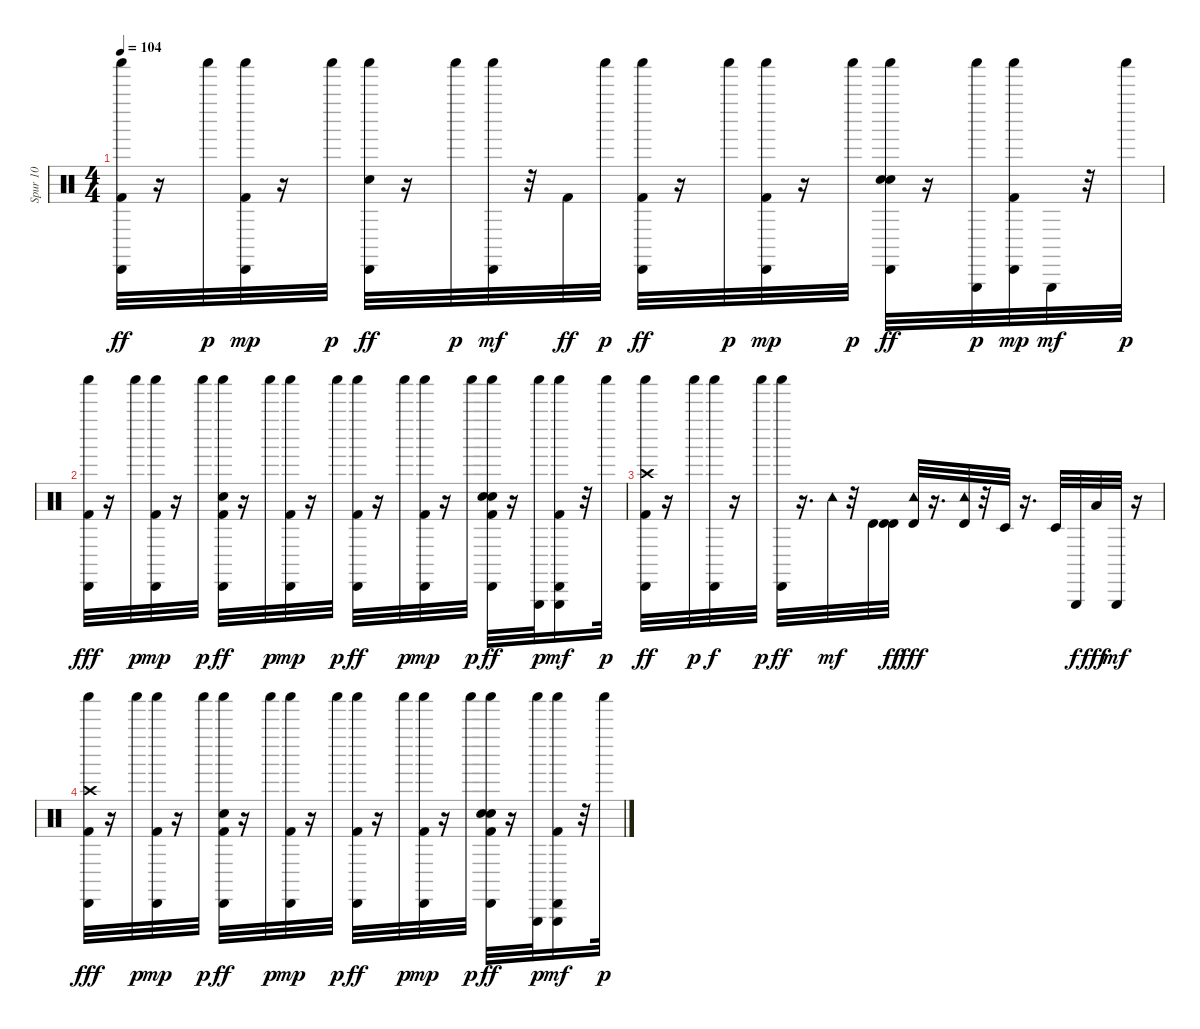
\track ("Spur 10" "Spur 10") {instrument percussion}
\staff {score}
\articulation defaults
\ts (4 4)
\tempo 104
\clef neutral
\ks c
("Kick (hit) 2" "Cabasa (hit)" "Shaker (hit)").32{dy ff} r.16 "Shaker (hit)".32{dy p} ("Kick (hit) 2" "Cabasa (hit)" "Shaker (hit)").32{dy mp} r.16 "Shaker (hit)".32{dy p} ("Snare (hit) 2" "Cabasa (hit)" "Shaker (hit)").32{dy ff} r.16 "Shaker (hit)".32{dy p} ("Cabasa (hit)" "Shaker (hit)").32{dy mf} r.32 "Kick (hit) 2".32{dy ff} "Shaker (hit)".32{dy p} ("Kick (hit) 2" "Cabasa (hit)" "Shaker (hit)").32{dy ff} r.16 "Shaker (hit)".32{dy p} ("Kick (hit) 2" "Cabasa (hit)" "Shaker (hit)").32{dy mp} r.16 "Shaker (hit)".32{dy p} ("Snare (hit) 2" "Hand Clap (hit)" "Cabasa (hit)" "Shaker (hit)").32{dy ff} r.16 ("Shaker (hit)" "Triangle (hit)").32{dy p} ("Kick (hit) 2" "Cabasa (hit)" "Shaker (hit)").32{dy mp} "Triangle (hit)".32{dy mf} r.32 "Shaker (hit)".32{dy p} |
("Kick (hit) 2" "Cabasa (hit)" "Shaker (hit)").32{dy fff} r.16 "Shaker (hit)".32{dy p} ("Kick (hit) 2" "Cabasa (hit)" "Shaker (hit)").32{dy mp} r.16 "Shaker (hit)".32{dy p} ("Kick (hit) 2" "Snare (hit) 2" "Cabasa (hit)" "Shaker (hit)").32{dy ff} r.16 "Shaker (hit)".32{dy p} ("Kick (hit) 2" "Cabasa (hit)" "Shaker (hit)").32{dy mp} r.16 "Shaker (hit)".32{dy p} ("Kick (hit) 2" "Cabasa (hit)" "Shaker (hit)").32{dy ff} r.16 "Shaker (hit)".32{dy p} ("Kick (hit) 2" "Cabasa (hit)" "Shaker (hit)").32{dy mp} r.16 "Shaker (hit)".32{dy p} ("Kick (hit) 2" "Snare (hit) 2" "Hand Clap (hit)" "Cabasa (hit)" "Shaker (hit)").32{dy ff} r.16 ("Triangle (hit)" "Shaker (hit)").32{dy p} ("Kick (hit) 2" "Cabasa (hit)" "Shaker (hit)" "Triangle (hit)").16{dy mf} r.32 "Shaker (hit)".32{dy p} |
("Crash high (hit)" "Kick (hit) 2" "Cabasa (hit)" "Shaker (hit)").32{dy ff} r.16 "Shaker (hit)".32{dy p} ("Cabasa (hit)" "Shaker (hit)").32{dy f} r.16 "Shaker (hit)".32{dy p} ("Cabasa (hit)" "Shaker (hit)").32{dy ff} r.16{d} "Tambourine (hit)".32{dy mf} r.32 "Timbale high (hit)".32 ("Timbale high (hit)" "Timbale high (hit)").32{dy ff} ("Timbale high (hit)" "Tambourine (hit)").32{dy fff} r.16{d} ("Timbale high (hit)" "Tambourine (hit)").32 r.32 "Timbale low (hit)".32 r.16{d} "Timbale low (hit)".32 "Triangle (hit)".32{dy f} "Low Tom (hit)".32{dy fff} "Triangle (hit)".32{dy mf} r.16 |
("Crash high (hit)" "Kick (hit) 2" "Cabasa (hit)" "Shaker (hit)").32{dy fff} r.16 "Shaker (hit)".32{dy p} ("Kick (hit) 2" "Cabasa (hit)" "Shaker (hit)").32{dy mp} r.16 "Shaker (hit)".32{dy p} ("Kick (hit) 2" "Snare (hit) 2" "Cabasa (hit)" "Shaker (hit)").32{dy ff} r.16 "Shaker (hit)".32{dy p} ("Kick (hit) 2" "Cabasa (hit)" "Shaker (hit)").32{dy mp} r.16 "Shaker (hit)".32{dy p} ("Kick (hit) 2" "Cabasa (hit)" "Shaker (hit)").32{dy ff} r.16 "Shaker (hit)".32{dy p} ("Kick (hit) 2" "Cabasa (hit)" "Shaker (hit)").32{dy mp} r.16 "Shaker (hit)".32{dy p} ("Kick (hit) 2" "Snare (hit) 2" "Hand Clap (hit)" "Cabasa (hit)" "Shaker (hit)").32{dy ff} r.16 ("Triangle (hit)" "Shaker (hit)").32{dy p} ("Kick (hit) 2" "Cabasa (hit)" "Shaker (hit)" "Triangle (hit)").16{dy mf} r.32 "Shaker (hit)".32{dy p}
